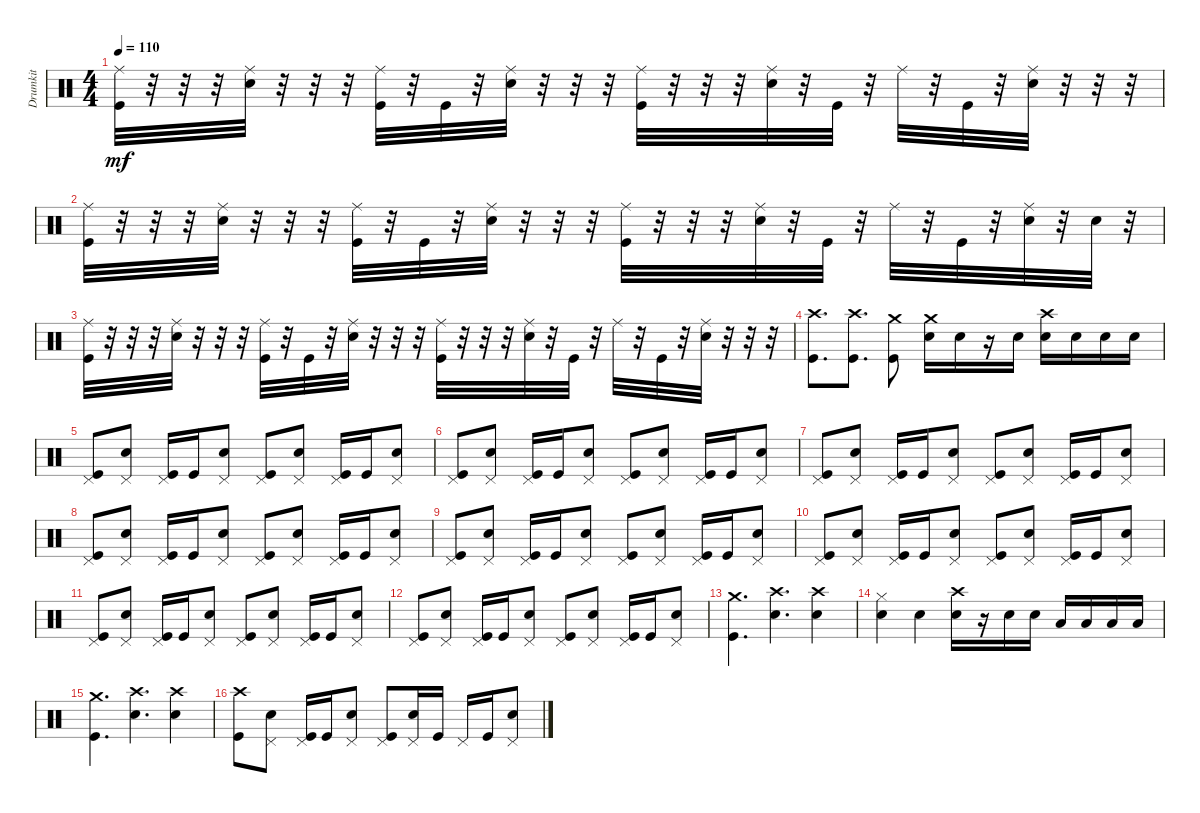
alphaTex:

\track ("Drumkit" "Drumkit") {instrument percussion}
\staff {score}
\articulation defaults
\ts (4 4)
\tempo 110
\clef neutral
\ks c
("Kick (hit)" "Ride (middle)").32{dy mf} r.32 r.32 r.32 ("Snare (hit) 2" "Ride (middle)").32 r.32 r.32 r.32 ("Kick (hit)" "Ride (middle)").32 r.32 "Kick (hit)".32 r.32 ("Snare (hit) 2" "Ride (middle)").32 r.32 r.32 r.32 ("Kick (hit)" "Ride (middle)").32 r.32 r.32 r.32 ("Ride (middle)" "Snare (hit) 2").32 r.32 "Kick (hit)".32 r.32 "Ride (middle)".32 r.32 "Kick (hit)".32 r.32 ("Ride (middle)" "Snare (hit) 2").32 r.32 r.32 r.32 |
("Kick (hit)" "Ride (middle)").32 r.32 r.32 r.32 ("Snare (hit) 2" "Ride (middle)").32 r.32 r.32 r.32 ("Kick (hit)" "Ride (middle)").32 r.32 "Kick (hit)".32 r.32 ("Snare (hit) 2" "Ride (middle)").32 r.32 r.32 r.32 ("Kick (hit)" "Ride (middle)").32 r.32 r.32 r.32 ("Ride (middle)" "Snare (hit) 2").32 r.32 "Kick (hit)".32 r.32 "Ride (middle)".32 r.32 "Kick (hit)".32 r.32 ("Ride (middle)" "Snare (hit) 2").32 r.32 "Snare (hit) 2".32 r.32 |
("Kick (hit)" "Ride (middle)").32 r.32 r.32 r.32 ("Snare (hit) 2" "Ride (middle)").32 r.32 r.32 r.32 ("Kick (hit)" "Ride (middle)").32 r.32 "Kick (hit)".32 r.32 ("Snare (hit) 2" "Ride (middle)").32 r.32 r.32 r.32 ("Kick (hit)" "Ride (middle)").32 r.32 r.32 r.32 ("Ride (middle)" "Snare (hit) 2").32 r.32 "Kick (hit)".32 r.32 "Ride (middle)".32 r.32 "Kick (hit)".32 r.32 ("Ride (middle)" "Snare (hit) 2").32 r.32 r.32 r.32 |
("Kick (hit)" "Crash high (hit)").8{d} ("Kick (hit)" "Crash high (hit)").8{d} ("Kick (hit)" "Crash medium (hit)").8 ("Snare (hit) 2" "Crash medium (hit)").16 "Snare (hit) 2".16 r.16 "Snare (hit) 2".16 ("Snare (hit) 2" "Crash high (hit)").16 "Snare (hit) 2".16 "Snare (hit) 2".16 "Snare (hit) 2".16 |
("Kick (hit)" "Pedal Hi-Hat (hit)").8 ("Snare (hit) 2" "Pedal Hi-Hat (hit)").8 ("Kick (hit)" "Pedal Hi-Hat (hit)").16 "Kick (hit)".16 ("Snare (hit) 2" "Pedal Hi-Hat (hit)").8 ("Kick (hit)" "Pedal Hi-Hat (hit)").8 ("Snare (hit) 2" "Pedal Hi-Hat (hit)").8 ("Kick (hit)" "Pedal Hi-Hat (hit)").16 "Kick (hit)".16 ("Snare (hit) 2" "Pedal Hi-Hat (hit)").8 |
("Kick (hit)" "Pedal Hi-Hat (hit)").8 ("Snare (hit) 2" "Pedal Hi-Hat (hit)").8 ("Kick (hit)" "Pedal Hi-Hat (hit)").16 "Kick (hit)".16 ("Snare (hit) 2" "Pedal Hi-Hat (hit)").8 ("Kick (hit)" "Pedal Hi-Hat (hit)").8 ("Snare (hit) 2" "Pedal Hi-Hat (hit)").8 ("Kick (hit)" "Pedal Hi-Hat (hit)").16 "Kick (hit)".16 ("Snare (hit) 2" "Pedal Hi-Hat (hit)").8 |
("Kick (hit)" "Pedal Hi-Hat (hit)").8 ("Snare (hit) 2" "Pedal Hi-Hat (hit)").8 ("Kick (hit)" "Pedal Hi-Hat (hit)").16 "Kick (hit)".16 ("Snare (hit) 2" "Pedal Hi-Hat (hit)").8 ("Kick (hit)" "Pedal Hi-Hat (hit)").8 ("Snare (hit) 2" "Pedal Hi-Hat (hit)").8 ("Kick (hit)" "Pedal Hi-Hat (hit)").16 "Kick (hit)".16 ("Snare (hit) 2" "Pedal Hi-Hat (hit)").8 |
("Kick (hit)" "Pedal Hi-Hat (hit)").8 ("Snare (hit) 2" "Pedal Hi-Hat (hit)").8 ("Kick (hit)" "Pedal Hi-Hat (hit)").16 "Kick (hit)".16 ("Snare (hit) 2" "Pedal Hi-Hat (hit)").8 ("Kick (hit)" "Pedal Hi-Hat (hit)").8 ("Snare (hit) 2" "Pedal Hi-Hat (hit)").8 ("Kick (hit)" "Pedal Hi-Hat (hit)").16 "Kick (hit)".16 ("Snare (hit) 2" "Pedal Hi-Hat (hit)").8 |
("Kick (hit)" "Pedal Hi-Hat (hit)").8 ("Snare (hit) 2" "Pedal Hi-Hat (hit)").8 ("Kick (hit)" "Pedal Hi-Hat (hit)").16 "Kick (hit)".16 ("Snare (hit) 2" "Pedal Hi-Hat (hit)").8 ("Kick (hit)" "Pedal Hi-Hat (hit)").8 ("Snare (hit) 2" "Pedal Hi-Hat (hit)").8 ("Kick (hit)" "Pedal Hi-Hat (hit)").16 "Kick (hit)".16 ("Snare (hit) 2" "Pedal Hi-Hat (hit)").8 |
("Kick (hit)" "Pedal Hi-Hat (hit)").8 ("Snare (hit) 2" "Pedal Hi-Hat (hit)").8 ("Kick (hit)" "Pedal Hi-Hat (hit)").16 "Kick (hit)".16 ("Snare (hit) 2" "Pedal Hi-Hat (hit)").8 ("Kick (hit)" "Pedal Hi-Hat (hit)").8 ("Snare (hit) 2" "Pedal Hi-Hat (hit)").8 ("Kick (hit)" "Pedal Hi-Hat (hit)").16 "Kick (hit)".16 ("Snare (hit) 2" "Pedal Hi-Hat (hit)").8 |
("Kick (hit)" "Pedal Hi-Hat (hit)").8 ("Snare (hit) 2" "Pedal Hi-Hat (hit)").8 ("Kick (hit)" "Pedal Hi-Hat (hit)").16 "Kick (hit)".16 ("Snare (hit) 2" "Pedal Hi-Hat (hit)").8 ("Kick (hit)" "Pedal Hi-Hat (hit)").8 ("Snare (hit) 2" "Pedal Hi-Hat (hit)").8 ("Kick (hit)" "Pedal Hi-Hat (hit)").16 "Kick (hit)".16 ("Snare (hit) 2" "Pedal Hi-Hat (hit)").8 |
("Kick (hit)" "Pedal Hi-Hat (hit)").8 ("Snare (hit) 2" "Pedal Hi-Hat (hit)").8 ("Kick (hit)" "Pedal Hi-Hat (hit)").16 "Kick (hit)".16 ("Snare (hit) 2" "Pedal Hi-Hat (hit)").8 ("Kick (hit)" "Pedal Hi-Hat (hit)").8 ("Snare (hit) 2" "Pedal Hi-Hat (hit)").8 ("Kick (hit)" "Pedal Hi-Hat (hit)").16 "Kick (hit)".16 ("Snare (hit) 2" "Pedal Hi-Hat (hit)").8 |
("Crash medium (hit)" "Kick (hit)").4{d} ("Snare (hit) 2" "Crash high (hit)").4{d} ("Snare (hit) 2" "Crash high (hit)").4 |
("Snare (hit) 2" "Hi-Hat (closed)").4 "Snare (hit) 2".4 ("Snare (hit) 2" "Crash high (hit)").16 r.16 "Snare (hit) 2".16 "Snare (hit) 2".16 "Low Tom (hit)".16 "Low Tom (hit)".16 "Low Tom (hit)".16 "Low Tom (hit)".16 |
("Crash medium (hit)" "Kick (hit)").4{d} ("Snare (hit) 2" "Crash high (hit)").4{d} ("Snare (hit) 2" "Crash high (hit)").4 |
("Kick (hit)" "Crash high (hit)").8 ("Snare (hit) 2" "Pedal Hi-Hat (hit)").8 ("Kick (hit)" "Pedal Hi-Hat (hit)").16 "Kick (hit)".16 ("Snare (hit) 2" "Pedal Hi-Hat (hit)").8 ("Kick (hit)" "Pedal Hi-Hat (hit)").8 ("Snare (hit) 2" "Pedal Hi-Hat (hit)").16 "Kick (hit)".16 "Pedal Hi-Hat (hit)".16 "Kick (hit)".16 ("Pedal Hi-Hat (hit)" "Snare (hit) 2").8
